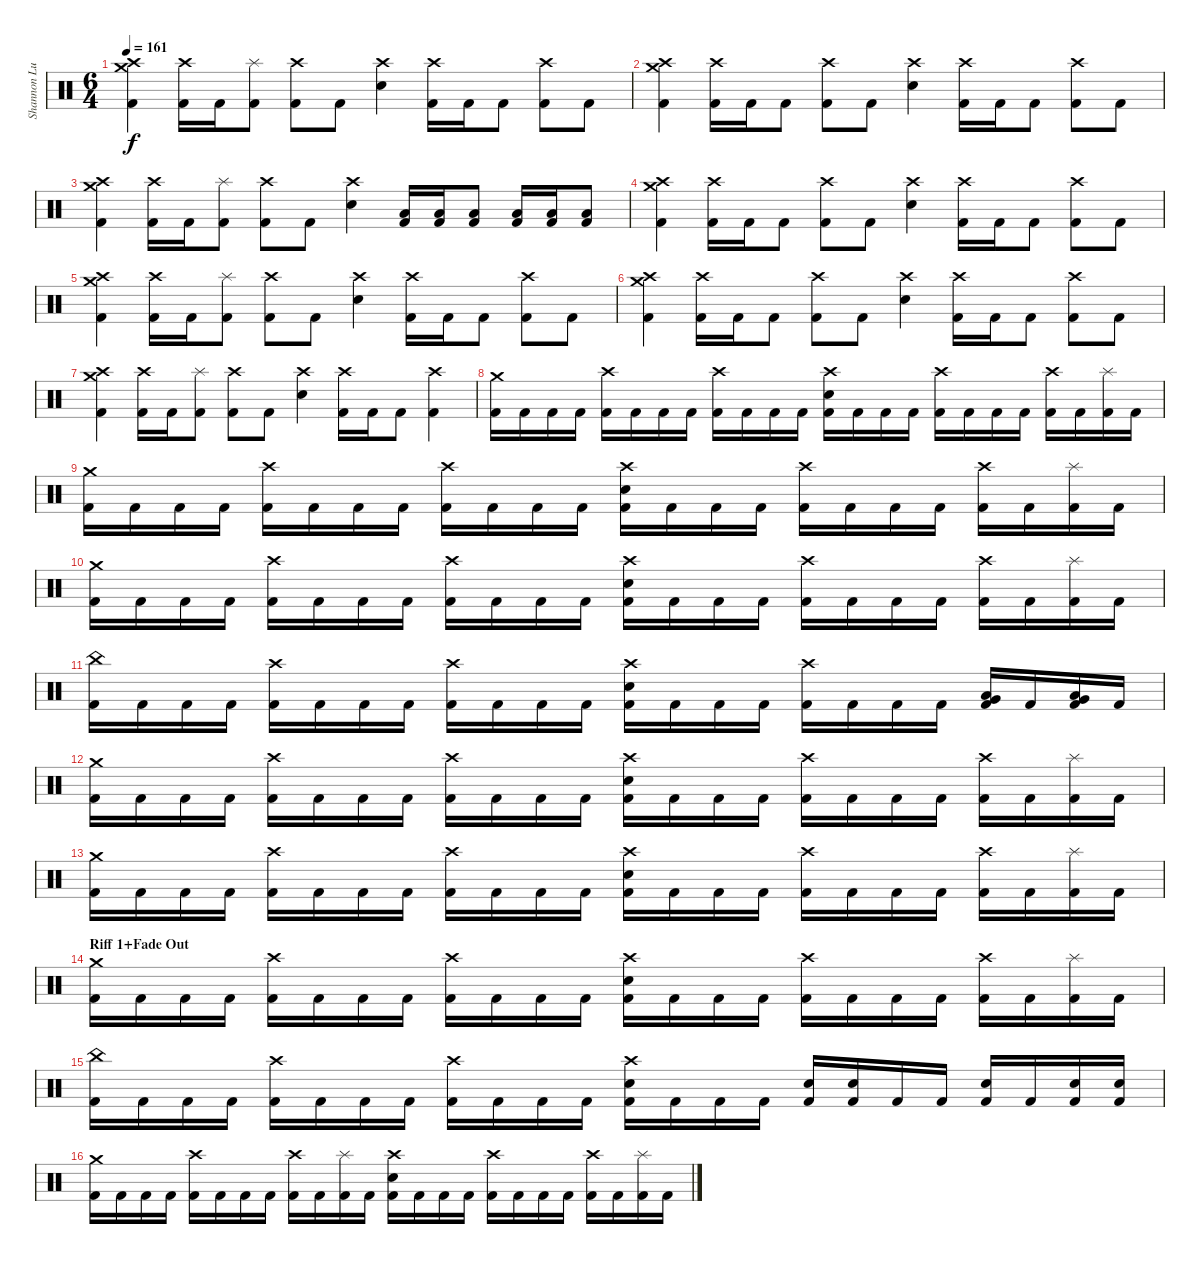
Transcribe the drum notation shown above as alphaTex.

\track ("Shannon Lucas (Drums)" "Shannon Lu") {instrument percussion}
\staff {score}
\articulation defaults
\ts (6 4)
\tempo 161
\clef neutral
\ks c
("Crash medium (hit)" "Crash high (hit)" "Kick (hit) 2").4{dy f} ("Crash high (hit)" "Kick (hit) 2").16 "Kick (hit) 2".16 ("Splash (hit)" "Kick (hit) 2").8 ("Crash high (hit)" "Kick (hit) 2").8 "Kick (hit) 2".8 ("Crash high (hit)" "Snare (hit) 2").4 ("Crash high (hit)" "Kick (hit) 2").16 "Kick (hit) 2".16 "Kick (hit) 2".8 ("Crash high (hit)" "Kick (hit) 2").8 "Kick (hit) 2".8 |
("Crash medium (hit)" "Crash high (hit)" "Kick (hit) 2").4 ("Crash high (hit)" "Kick (hit) 2").16 "Kick (hit) 2".16 "Kick (hit) 2".8 ("Crash high (hit)" "Kick (hit) 2").8 "Kick (hit) 2".8 ("Crash high (hit)" "Snare (hit) 2").4 ("Crash high (hit)" "Kick (hit) 2").16 "Kick (hit) 2".16 "Kick (hit) 2".8 ("Crash high (hit)" "Kick (hit) 2").8 "Kick (hit) 2".8 |
("Crash medium (hit)" "Crash high (hit)" "Kick (hit) 2").4 ("Crash high (hit)" "Kick (hit) 2").16 "Kick (hit) 2".16 ("Splash (hit)" "Kick (hit) 2").8 ("Crash high (hit)" "Kick (hit) 2").8 "Kick (hit) 2".8 ("Crash high (hit)" "Snare (hit) 2").4 ("Low Floor Tom (hit)" "Kick (hit) 2").16 ("Low Floor Tom (hit)" "Kick (hit) 2").16 ("Low Floor Tom (hit)" "Kick (hit) 2").8 ("Low Floor Tom (hit)" "Kick (hit) 2").16 ("Low Floor Tom (hit)" "Kick (hit) 2").16 ("Low Floor Tom (hit)" "Kick (hit) 2").8 |
("Crash medium (hit)" "Crash high (hit)" "Kick (hit) 2").4 ("Crash high (hit)" "Kick (hit) 2").16 "Kick (hit) 2".16 "Kick (hit) 2".8 ("Crash high (hit)" "Kick (hit) 2").8 "Kick (hit) 2".8 ("Crash high (hit)" "Snare (hit) 2").4 ("Crash high (hit)" "Kick (hit) 2").16 "Kick (hit) 2".16 "Kick (hit) 2".8 ("Crash high (hit)" "Kick (hit) 2").8 "Kick (hit) 2".8 |
("Crash medium (hit)" "Crash high (hit)" "Kick (hit) 2").4 ("Crash high (hit)" "Kick (hit) 2").16 "Kick (hit) 2".16 ("Splash (hit)" "Kick (hit) 2").8 ("Crash high (hit)" "Kick (hit) 2").8 "Kick (hit) 2".8 ("Crash high (hit)" "Snare (hit) 2").4 ("Crash high (hit)" "Kick (hit) 2").16 "Kick (hit) 2".16 "Kick (hit) 2".8 ("Crash high (hit)" "Kick (hit) 2").8 "Kick (hit) 2".8 |
("Crash medium (hit)" "Crash high (hit)" "Kick (hit) 2").4 ("Crash high (hit)" "Kick (hit) 2").16 "Kick (hit) 2".16 "Kick (hit) 2".8 ("Crash high (hit)" "Kick (hit) 2").8 "Kick (hit) 2".8 ("Crash high (hit)" "Snare (hit) 2").4 ("Crash high (hit)" "Kick (hit) 2").16 "Kick (hit) 2".16 "Kick (hit) 2".8 ("Crash high (hit)" "Kick (hit) 2").8 "Kick (hit) 2".8 |
("Crash medium (hit)" "Crash high (hit)" "Kick (hit) 2").4 ("Crash high (hit)" "Kick (hit) 2").16 "Kick (hit) 2".16 ("Splash (hit)" "Kick (hit) 2").8 ("Crash high (hit)" "Kick (hit) 2").8 "Kick (hit) 2".8 ("Crash high (hit)" "Snare (hit) 2").4 ("Crash high (hit)" "Kick (hit) 2").16 "Kick (hit) 2".16 "Kick (hit) 2".8 ("Crash high (hit)" "Kick (hit) 2").4 |
("Crash medium (hit)" "Kick (hit) 2").16 "Kick (hit) 2".16 "Kick (hit) 2".16 "Kick (hit) 2".16 ("Crash high (hit)" "Kick (hit) 2").16 "Kick (hit) 2".16 "Kick (hit) 2".16 "Kick (hit) 2".16 ("Crash high (hit)" "Kick (hit) 2").16 "Kick (hit) 2".16 "Kick (hit) 2".16 "Kick (hit) 2".16 ("Snare (hit) 2" "Crash high (hit)" "Kick (hit) 2").16 "Kick (hit) 2".16 "Kick (hit) 2".16 "Kick (hit) 2".16 ("Crash high (hit)" "Kick (hit) 2").16 "Kick (hit) 2".16 "Kick (hit) 2".16 "Kick (hit) 2".16 ("Crash high (hit)" "Kick (hit) 2").16 "Kick (hit) 2".16 ("Splash (hit)" "Kick (hit) 2").16 "Kick (hit) 2".16 |
("Crash medium (hit)" "Kick (hit) 2").16 "Kick (hit) 2".16 "Kick (hit) 2".16 "Kick (hit) 2".16 ("Crash high (hit)" "Kick (hit) 2").16 "Kick (hit) 2".16 "Kick (hit) 2".16 "Kick (hit) 2".16 ("Crash high (hit)" "Kick (hit) 2").16 "Kick (hit) 2".16 "Kick (hit) 2".16 "Kick (hit) 2".16 ("Snare (hit) 2" "Crash high (hit)" "Kick (hit) 2").16 "Kick (hit) 2".16 "Kick (hit) 2".16 "Kick (hit) 2".16 ("Crash high (hit)" "Kick (hit) 2").16 "Kick (hit) 2".16 "Kick (hit) 2".16 "Kick (hit) 2".16 ("Crash high (hit)" "Kick (hit) 2").16 "Kick (hit) 2".16 ("Splash (hit)" "Kick (hit) 2").16 "Kick (hit) 2".16 |
("Crash medium (hit)" "Kick (hit) 2").16 "Kick (hit) 2".16 "Kick (hit) 2".16 "Kick (hit) 2".16 ("Crash high (hit)" "Kick (hit) 2").16 "Kick (hit) 2".16 "Kick (hit) 2".16 "Kick (hit) 2".16 ("Crash high (hit)" "Kick (hit) 2").16 "Kick (hit) 2".16 "Kick (hit) 2".16 "Kick (hit) 2".16 ("Snare (hit) 2" "Crash high (hit)" "Kick (hit) 2").16 "Kick (hit) 2".16 "Kick (hit) 2".16 "Kick (hit) 2".16 ("Crash high (hit)" "Kick (hit) 2").16 "Kick (hit) 2".16 "Kick (hit) 2".16 "Kick (hit) 2".16 ("Crash high (hit)" "Kick (hit) 2").16 "Kick (hit) 2".16 ("Splash (hit)" "Kick (hit) 2").16 "Kick (hit) 2".16 |
("China (hit)" "Kick (hit) 2").16 "Kick (hit) 2".16 "Kick (hit) 2".16 "Kick (hit) 2".16 ("Crash high (hit)" "Kick (hit) 2").16 "Kick (hit) 2".16 "Kick (hit) 2".16 "Kick (hit) 2".16 ("Crash high (hit)" "Kick (hit) 2").16 "Kick (hit) 2".16 "Kick (hit) 2".16 "Kick (hit) 2".16 ("Snare (hit) 2" "Crash high (hit)" "Kick (hit) 2").16 "Kick (hit) 2".16 "Kick (hit) 2".16 "Kick (hit) 2".16 ("Crash high (hit)" "Kick (hit) 2").16 "Kick (hit) 2".16 "Kick (hit) 2".16 "Kick (hit) 2".16 ("Very Low Tom (hit)" "Low Tom (hit)" "Kick (hit) 2").16 "Kick (hit) 2".16 ("Low Floor Tom (hit)" "Very Low Tom (hit)" "Kick (hit) 2").16 "Kick (hit) 2".16 |
("Crash medium (hit)" "Kick (hit) 2").16 "Kick (hit) 2".16 "Kick (hit) 2".16 "Kick (hit) 2".16 ("Crash high (hit)" "Kick (hit) 2").16 "Kick (hit) 2".16 "Kick (hit) 2".16 "Kick (hit) 2".16 ("Crash high (hit)" "Kick (hit) 2").16 "Kick (hit) 2".16 "Kick (hit) 2".16 "Kick (hit) 2".16 ("Snare (hit) 2" "Crash high (hit)" "Kick (hit) 2").16 "Kick (hit) 2".16 "Kick (hit) 2".16 "Kick (hit) 2".16 ("Crash high (hit)" "Kick (hit) 2").16 "Kick (hit) 2".16 "Kick (hit) 2".16 "Kick (hit) 2".16 ("Crash high (hit)" "Kick (hit) 2").16 "Kick (hit) 2".16 ("Splash (hit)" "Kick (hit) 2").16 "Kick (hit) 2".16 |
("Crash medium (hit)" "Kick (hit) 2").16 "Kick (hit) 2".16 "Kick (hit) 2".16 "Kick (hit) 2".16 ("Crash high (hit)" "Kick (hit) 2").16 "Kick (hit) 2".16 "Kick (hit) 2".16 "Kick (hit) 2".16 ("Crash high (hit)" "Kick (hit) 2").16 "Kick (hit) 2".16 "Kick (hit) 2".16 "Kick (hit) 2".16 ("Snare (hit) 2" "Crash high (hit)" "Kick (hit) 2").16 "Kick (hit) 2".16 "Kick (hit) 2".16 "Kick (hit) 2".16 ("Crash high (hit)" "Kick (hit) 2").16 "Kick (hit) 2".16 "Kick (hit) 2".16 "Kick (hit) 2".16 ("Crash high (hit)" "Kick (hit) 2").16 "Kick (hit) 2".16 ("Splash (hit)" "Kick (hit) 2").16 "Kick (hit) 2".16 |
\section ("" "Riff 1+Fade Out")
("Crash medium (hit)" "Kick (hit) 2").16{volume 14} "Kick (hit) 2".16 "Kick (hit) 2".16 "Kick (hit) 2".16 ("Crash high (hit)" "Kick (hit) 2").16 "Kick (hit) 2".16 "Kick (hit) 2".16 "Kick (hit) 2".16 ("Crash high (hit)" "Kick (hit) 2").16 "Kick (hit) 2".16 "Kick (hit) 2".16 "Kick (hit) 2".16 ("Snare (hit) 2" "Crash high (hit)" "Kick (hit) 2").16 "Kick (hit) 2".16 "Kick (hit) 2".16 "Kick (hit) 2".16 ("Crash high (hit)" "Kick (hit) 2").16 "Kick (hit) 2".16 "Kick (hit) 2".16 "Kick (hit) 2".16 ("Crash high (hit)" "Kick (hit) 2").16 "Kick (hit) 2".16 ("Splash (hit)" "Kick (hit) 2").16 "Kick (hit) 2".16 |
("China (hit)" "Kick (hit) 2").16 "Kick (hit) 2".16 "Kick (hit) 2".16 "Kick (hit) 2".16 ("Crash high (hit)" "Kick (hit) 2").16 "Kick (hit) 2".16 "Kick (hit) 2".16 "Kick (hit) 2".16 ("Crash high (hit)" "Kick (hit) 2").16 "Kick (hit) 2".16 "Kick (hit) 2".16 "Kick (hit) 2".16 ("Snare (hit) 2" "Crash high (hit)" "Kick (hit) 2").16{volume 12} "Kick (hit) 2".16 "Kick (hit) 2".16 "Kick (hit) 2".16 ("Snare (hit) 2" "Kick (hit) 2").16 ("Snare (hit) 2" "Kick (hit) 2").16 "Kick (hit) 2".16 "Kick (hit) 2".16 ("Snare (hit) 2" "Kick (hit) 2").16 "Kick (hit) 2".16 ("Snare (hit) 2" "Kick (hit) 2").16 ("Snare (hit) 2" "Kick (hit) 2").16 |
("Crash medium (hit)" "Kick (hit) 2").16{volume 10} "Kick (hit) 2".16 "Kick (hit) 2".16 "Kick (hit) 2".16 ("Crash high (hit)" "Kick (hit) 2").16 "Kick (hit) 2".16 "Kick (hit) 2".16 "Kick (hit) 2".16 ("Crash high (hit)" "Kick (hit) 2").16 "Kick (hit) 2".16 ("Splash (hit)" "Kick (hit) 2").16 "Kick (hit) 2".16 ("Snare (hit) 2" "Crash high (hit)" "Kick (hit) 2").16 "Kick (hit) 2".16 "Kick (hit) 2".16 "Kick (hit) 2".16 ("Crash high (hit)" "Kick (hit) 2").16 "Kick (hit) 2".16 "Kick (hit) 2".16 "Kick (hit) 2".16 ("Crash high (hit)" "Kick (hit) 2").16 "Kick (hit) 2".16 ("Splash (hit)" "Kick (hit) 2").16 "Kick (hit) 2".16
